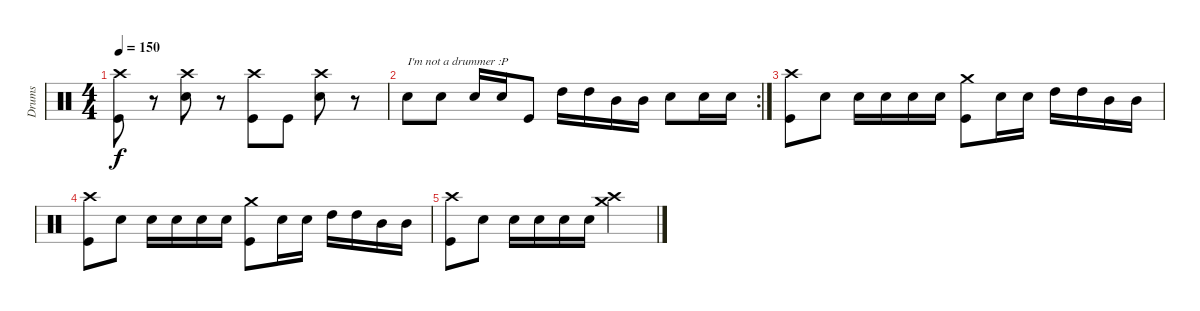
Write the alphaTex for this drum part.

\track ("Drums" "Drums") {instrument percussion}
\staff {score}
\articulation defaults
\ts (4 4)
\tempo 150
\clef neutral
\ks c
("Crash high (hit)" "Kick (hit)").8{dy f} r.8 ("Crash high (hit)" "Snare (hit) 2").8 r.8 ("Crash high (hit)" "Kick (hit)").8 "Kick (hit)".8 ("Crash high (hit)" "Snare (hit) 2").8 r.8 |
\rc 2 "Snare (hit) 2".8{txt "I'm not a drummer :P"} "Snare (hit) 2".8 "Snare (hit) 2".16 "Snare (hit) 2".16 "Kick (hit)".8 "High Tom (hit)".16 "High Tom (hit)".16 "Mid Tom (hit)".16 "Mid Tom (hit)".16 "Snare (hit) 2".8 "Snare (hit) 2".16 "Snare (hit) 2".16
|
("Crash high (hit)" "Kick (hit)").8 "Snare (hit) 2".8 "Snare (hit) 2".16 "Snare (hit) 2".16 "Snare (hit) 2".16 "Snare (hit) 2".16 ("Crash medium (hit)" "Kick (hit)").8 "Snare (hit) 2".16 "Snare (hit) 2".16 "High Tom (hit)".16 "High Tom (hit)".16 "Mid Tom (hit)".16 "Mid Tom (hit)".16 |
("Crash high (hit)" "Kick (hit)").8 "Snare (hit) 2".8 "Snare (hit) 2".16 "Snare (hit) 2".16 "Snare (hit) 2".16 "Snare (hit) 2".16 ("Crash medium (hit)" "Kick (hit)").8 "Snare (hit) 2".16 "Snare (hit) 2".16 "High Tom (hit)".16 "High Tom (hit)".16 "Mid Tom (hit)".16 "Mid Tom (hit)".16 |
("Crash high (hit)" "Kick (hit)").8 "Snare (hit) 2".8 "Snare (hit) 2".16 "Snare (hit) 2".16 "Snare (hit) 2".16 "Snare (hit) 2".16 ("Crash high (hit)" "Crash medium (hit)").2
